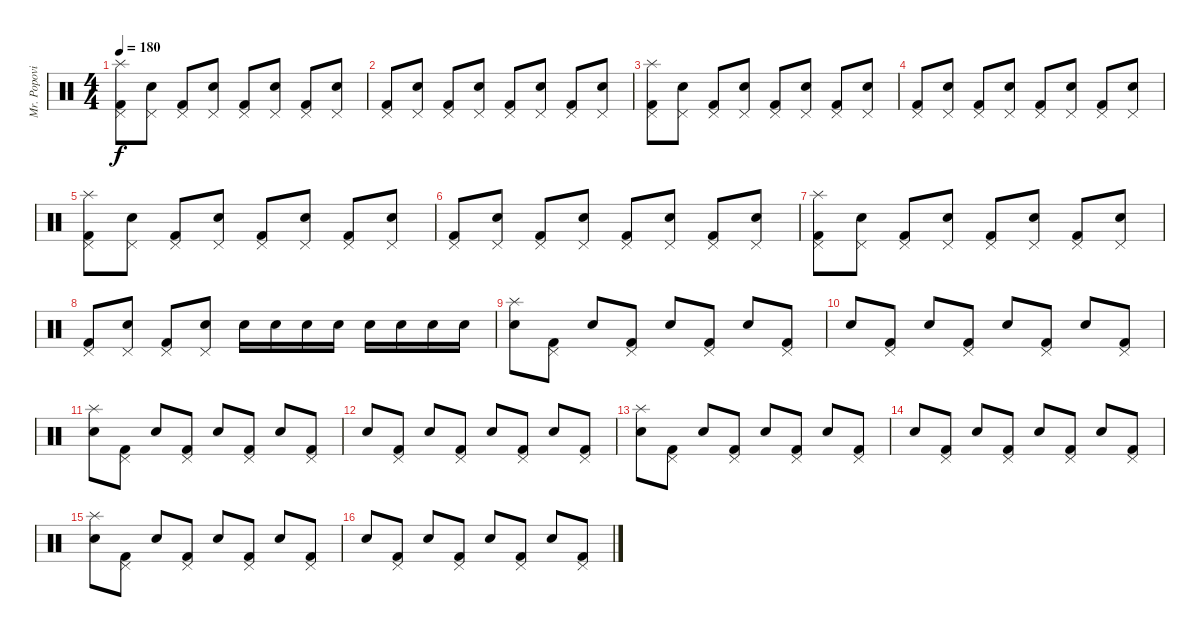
\track ("Mr. Popovic" "Mr. Popovi") {instrument percussion}
\staff {score}
\articulation defaults
\ts (4 4)
\tempo 180
\clef neutral
\ks c
("Splash (hit)" "Pedal Hi-Hat (hit)" "Kick (hit) 2").8{dy f} ("Pedal Hi-Hat (hit)" "Electric Snare (hit)").8 ("Pedal Hi-Hat (hit)" "Kick (hit) 2").8 ("Pedal Hi-Hat (hit)" "Electric Snare (hit)").8 ("Pedal Hi-Hat (hit)" "Kick (hit) 2").8 ("Pedal Hi-Hat (hit)" "Electric Snare (hit)").8 ("Pedal Hi-Hat (hit)" "Kick (hit) 2").8 ("Pedal Hi-Hat (hit)" "Electric Snare (hit)").8 |
("Pedal Hi-Hat (hit)" "Kick (hit) 2").8 ("Pedal Hi-Hat (hit)" "Electric Snare (hit)").8 ("Pedal Hi-Hat (hit)" "Kick (hit) 2").8 ("Pedal Hi-Hat (hit)" "Electric Snare (hit)").8 ("Pedal Hi-Hat (hit)" "Kick (hit) 2").8 ("Pedal Hi-Hat (hit)" "Electric Snare (hit)").8 ("Pedal Hi-Hat (hit)" "Kick (hit) 2").8 ("Pedal Hi-Hat (hit)" "Electric Snare (hit)").8 |
("Splash (hit)" "Pedal Hi-Hat (hit)" "Kick (hit) 2").8 ("Pedal Hi-Hat (hit)" "Electric Snare (hit)").8 ("Pedal Hi-Hat (hit)" "Kick (hit) 2").8 ("Pedal Hi-Hat (hit)" "Electric Snare (hit)").8 ("Pedal Hi-Hat (hit)" "Kick (hit) 2").8 ("Pedal Hi-Hat (hit)" "Electric Snare (hit)").8 ("Pedal Hi-Hat (hit)" "Kick (hit) 2").8 ("Pedal Hi-Hat (hit)" "Electric Snare (hit)").8 |
("Pedal Hi-Hat (hit)" "Kick (hit) 2").8 ("Pedal Hi-Hat (hit)" "Electric Snare (hit)").8 ("Pedal Hi-Hat (hit)" "Kick (hit) 2").8 ("Pedal Hi-Hat (hit)" "Electric Snare (hit)").8 ("Pedal Hi-Hat (hit)" "Kick (hit) 2").8 ("Pedal Hi-Hat (hit)" "Electric Snare (hit)").8 ("Pedal Hi-Hat (hit)" "Kick (hit) 2").8 ("Pedal Hi-Hat (hit)" "Electric Snare (hit)").8 |
("Splash (hit)" "Pedal Hi-Hat (hit)" "Kick (hit) 2").8 ("Pedal Hi-Hat (hit)" "Electric Snare (hit)").8 ("Pedal Hi-Hat (hit)" "Kick (hit) 2").8 ("Pedal Hi-Hat (hit)" "Electric Snare (hit)").8 ("Pedal Hi-Hat (hit)" "Kick (hit) 2").8 ("Pedal Hi-Hat (hit)" "Electric Snare (hit)").8 ("Pedal Hi-Hat (hit)" "Kick (hit) 2").8 ("Pedal Hi-Hat (hit)" "Electric Snare (hit)").8 |
("Pedal Hi-Hat (hit)" "Kick (hit) 2").8 ("Pedal Hi-Hat (hit)" "Electric Snare (hit)").8 ("Pedal Hi-Hat (hit)" "Kick (hit) 2").8 ("Pedal Hi-Hat (hit)" "Electric Snare (hit)").8 ("Pedal Hi-Hat (hit)" "Kick (hit) 2").8 ("Pedal Hi-Hat (hit)" "Electric Snare (hit)").8 ("Pedal Hi-Hat (hit)" "Kick (hit) 2").8 ("Pedal Hi-Hat (hit)" "Electric Snare (hit)").8 |
("Splash (hit)" "Pedal Hi-Hat (hit)" "Kick (hit) 2").8 ("Pedal Hi-Hat (hit)" "Electric Snare (hit)").8 ("Pedal Hi-Hat (hit)" "Kick (hit) 2").8 ("Pedal Hi-Hat (hit)" "Electric Snare (hit)").8 ("Pedal Hi-Hat (hit)" "Kick (hit) 2").8 ("Pedal Hi-Hat (hit)" "Electric Snare (hit)").8 ("Pedal Hi-Hat (hit)" "Kick (hit) 2").8 ("Pedal Hi-Hat (hit)" "Electric Snare (hit)").8 |
("Pedal Hi-Hat (hit)" "Kick (hit) 2").8 ("Pedal Hi-Hat (hit)" "Electric Snare (hit)").8 ("Pedal Hi-Hat (hit)" "Kick (hit) 2").8 ("Pedal Hi-Hat (hit)" "Electric Snare (hit)").8 "Electric Snare (hit)".16 "Electric Snare (hit)".16 "Electric Snare (hit)".16 "Electric Snare (hit)".16 "Electric Snare (hit)".16 "Electric Snare (hit)".16 "Electric Snare (hit)".16 "Electric Snare (hit)".16 |
("Splash (hit)" "Electric Snare (hit)").8 ("Pedal Hi-Hat (hit)" "Kick (hit) 2").8 "Electric Snare (hit)".8 ("Pedal Hi-Hat (hit)" "Kick (hit) 2").8 "Electric Snare (hit)".8 ("Pedal Hi-Hat (hit)" "Kick (hit) 2").8 "Electric Snare (hit)".8 ("Pedal Hi-Hat (hit)" "Kick (hit) 2").8 |
"Electric Snare (hit)".8 ("Pedal Hi-Hat (hit)" "Kick (hit) 2").8 "Electric Snare (hit)".8 ("Pedal Hi-Hat (hit)" "Kick (hit) 2").8 "Electric Snare (hit)".8 ("Pedal Hi-Hat (hit)" "Kick (hit) 2").8 "Electric Snare (hit)".8 ("Pedal Hi-Hat (hit)" "Kick (hit) 2").8 |
("Splash (hit)" "Electric Snare (hit)").8 ("Pedal Hi-Hat (hit)" "Kick (hit) 2").8 "Electric Snare (hit)".8 ("Pedal Hi-Hat (hit)" "Kick (hit) 2").8 "Electric Snare (hit)".8 ("Pedal Hi-Hat (hit)" "Kick (hit) 2").8 "Electric Snare (hit)".8 ("Pedal Hi-Hat (hit)" "Kick (hit) 2").8 |
"Electric Snare (hit)".8 ("Pedal Hi-Hat (hit)" "Kick (hit) 2").8 "Electric Snare (hit)".8 ("Pedal Hi-Hat (hit)" "Kick (hit) 2").8 "Electric Snare (hit)".8 ("Pedal Hi-Hat (hit)" "Kick (hit) 2").8 "Electric Snare (hit)".8 ("Pedal Hi-Hat (hit)" "Kick (hit) 2").8 |
("Splash (hit)" "Electric Snare (hit)").8 ("Pedal Hi-Hat (hit)" "Kick (hit) 2").8 "Electric Snare (hit)".8 ("Pedal Hi-Hat (hit)" "Kick (hit) 2").8 "Electric Snare (hit)".8 ("Pedal Hi-Hat (hit)" "Kick (hit) 2").8 "Electric Snare (hit)".8 ("Pedal Hi-Hat (hit)" "Kick (hit) 2").8 |
"Electric Snare (hit)".8 ("Pedal Hi-Hat (hit)" "Kick (hit) 2").8 "Electric Snare (hit)".8 ("Pedal Hi-Hat (hit)" "Kick (hit) 2").8 "Electric Snare (hit)".8 ("Pedal Hi-Hat (hit)" "Kick (hit) 2").8 "Electric Snare (hit)".8 ("Pedal Hi-Hat (hit)" "Kick (hit) 2").8 |
("Splash (hit)" "Electric Snare (hit)").8 ("Pedal Hi-Hat (hit)" "Kick (hit) 2").8 "Electric Snare (hit)".8 ("Pedal Hi-Hat (hit)" "Kick (hit) 2").8 "Electric Snare (hit)".8 ("Pedal Hi-Hat (hit)" "Kick (hit) 2").8 "Electric Snare (hit)".8 ("Pedal Hi-Hat (hit)" "Kick (hit) 2").8 |
"Electric Snare (hit)".8 ("Pedal Hi-Hat (hit)" "Kick (hit) 2").8 "Electric Snare (hit)".8 ("Pedal Hi-Hat (hit)" "Kick (hit) 2").8 "Electric Snare (hit)".8 ("Pedal Hi-Hat (hit)" "Kick (hit) 2").8 "Electric Snare (hit)".8 ("Pedal Hi-Hat (hit)" "Kick (hit) 2").8
